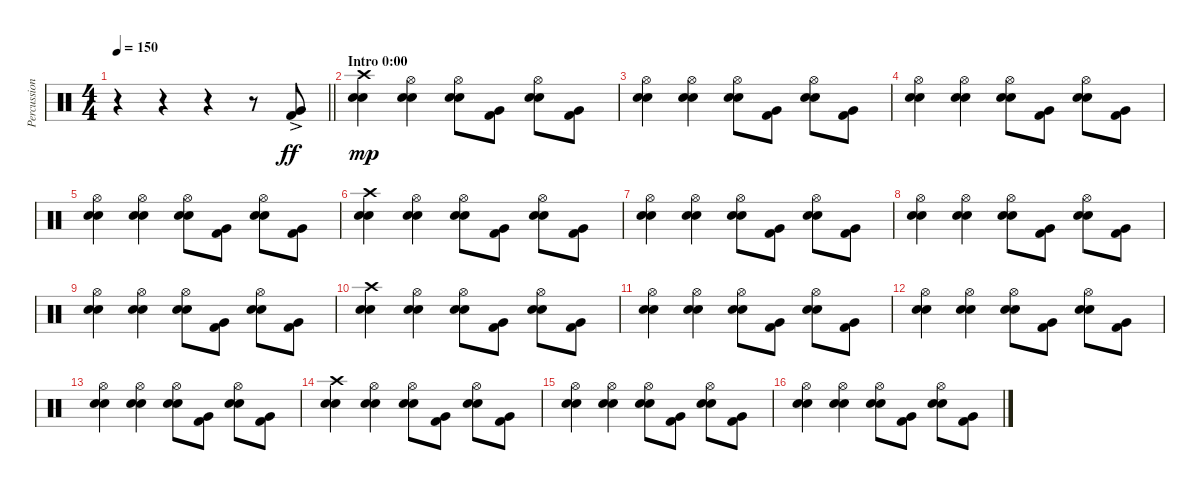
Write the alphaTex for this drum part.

\track ("Percussion" "Percussion") {instrument percussion}
\staff {score}
\articulation defaults
\ts (4 4)
\tempo 150
\clef neutral
\barLineRight lightlight
\ks c
r.4{dy ff} r.4 r.4 r.8 ("Kick (hit) 2" "Very Low Tom (hit)"{ac}).8 |
\section ("" "Intro 0:00")
("Electric Snare (hit)" "Snare (hit) 2" "Crash high (hit)").4{dy mp} ("Electric Snare (hit)" "Snare (hit) 2" "Hi-Hat (open)").4 ("Electric Snare (hit)" "Snare (hit) 2" "Hi-Hat (open)").8 ("Kick (hit) 2" "Very Low Tom (hit)").8 ("Electric Snare (hit)" "Snare (hit) 2" "Hi-Hat (open)").8 ("Kick (hit) 2" "Very Low Tom (hit)").8 |
("Electric Snare (hit)" "Snare (hit) 2" "Hi-Hat (open)").4 ("Electric Snare (hit)" "Snare (hit) 2" "Hi-Hat (open)").4 ("Electric Snare (hit)" "Snare (hit) 2" "Hi-Hat (open)").8 ("Kick (hit) 2" "Very Low Tom (hit)").8 ("Electric Snare (hit)" "Snare (hit) 2" "Hi-Hat (open)").8 ("Kick (hit) 2" "Very Low Tom (hit)").8 |
("Electric Snare (hit)" "Snare (hit) 2" "Hi-Hat (open)").4 ("Electric Snare (hit)" "Snare (hit) 2" "Hi-Hat (open)").4 ("Electric Snare (hit)" "Snare (hit) 2" "Hi-Hat (open)").8 ("Kick (hit) 2" "Very Low Tom (hit)").8 ("Electric Snare (hit)" "Snare (hit) 2" "Hi-Hat (open)").8 ("Kick (hit) 2" "Very Low Tom (hit)").8 |
("Electric Snare (hit)" "Snare (hit) 2" "Hi-Hat (open)").4 ("Electric Snare (hit)" "Snare (hit) 2" "Hi-Hat (open)").4 ("Electric Snare (hit)" "Snare (hit) 2" "Hi-Hat (open)").8 ("Kick (hit) 2" "Very Low Tom (hit)").8 ("Electric Snare (hit)" "Snare (hit) 2" "Hi-Hat (open)").8 ("Kick (hit) 2" "Very Low Tom (hit)").8 |
("Electric Snare (hit)" "Snare (hit) 2" "Crash high (hit)").4 ("Electric Snare (hit)" "Snare (hit) 2" "Hi-Hat (open)").4 ("Electric Snare (hit)" "Snare (hit) 2" "Hi-Hat (open)").8 ("Kick (hit) 2" "Very Low Tom (hit)").8 ("Electric Snare (hit)" "Snare (hit) 2" "Hi-Hat (open)").8 ("Kick (hit) 2" "Very Low Tom (hit)").8 |
("Electric Snare (hit)" "Snare (hit) 2" "Hi-Hat (open)").4 ("Electric Snare (hit)" "Snare (hit) 2" "Hi-Hat (open)").4 ("Electric Snare (hit)" "Snare (hit) 2" "Hi-Hat (open)").8 ("Kick (hit) 2" "Very Low Tom (hit)").8 ("Electric Snare (hit)" "Snare (hit) 2" "Hi-Hat (open)").8 ("Kick (hit) 2" "Very Low Tom (hit)").8 |
("Electric Snare (hit)" "Snare (hit) 2" "Hi-Hat (open)").4 ("Electric Snare (hit)" "Snare (hit) 2" "Hi-Hat (open)").4 ("Electric Snare (hit)" "Snare (hit) 2" "Hi-Hat (open)").8 ("Kick (hit) 2" "Very Low Tom (hit)").8 ("Electric Snare (hit)" "Snare (hit) 2" "Hi-Hat (open)").8 ("Kick (hit) 2" "Very Low Tom (hit)").8 |
("Electric Snare (hit)" "Snare (hit) 2" "Hi-Hat (open)").4 ("Electric Snare (hit)" "Snare (hit) 2" "Hi-Hat (open)").4 ("Electric Snare (hit)" "Snare (hit) 2" "Hi-Hat (open)").8 ("Kick (hit) 2" "Very Low Tom (hit)").8 ("Electric Snare (hit)" "Snare (hit) 2" "Hi-Hat (open)").8 ("Kick (hit) 2" "Very Low Tom (hit)").8 |
("Electric Snare (hit)" "Snare (hit) 2" "Crash high (hit)").4 ("Electric Snare (hit)" "Snare (hit) 2" "Hi-Hat (open)").4 ("Electric Snare (hit)" "Snare (hit) 2" "Hi-Hat (open)").8 ("Kick (hit) 2" "Very Low Tom (hit)").8 ("Electric Snare (hit)" "Snare (hit) 2" "Hi-Hat (open)").8 ("Kick (hit) 2" "Very Low Tom (hit)").8 |
("Electric Snare (hit)" "Snare (hit) 2" "Hi-Hat (open)").4 ("Electric Snare (hit)" "Snare (hit) 2" "Hi-Hat (open)").4 ("Electric Snare (hit)" "Snare (hit) 2" "Hi-Hat (open)").8 ("Kick (hit) 2" "Very Low Tom (hit)").8 ("Electric Snare (hit)" "Snare (hit) 2" "Hi-Hat (open)").8 ("Kick (hit) 2" "Very Low Tom (hit)").8 |
("Electric Snare (hit)" "Snare (hit) 2" "Hi-Hat (open)").4 ("Electric Snare (hit)" "Snare (hit) 2" "Hi-Hat (open)").4 ("Electric Snare (hit)" "Snare (hit) 2" "Hi-Hat (open)").8 ("Kick (hit) 2" "Very Low Tom (hit)").8 ("Electric Snare (hit)" "Snare (hit) 2" "Hi-Hat (open)").8 ("Kick (hit) 2" "Very Low Tom (hit)").8 |
("Electric Snare (hit)" "Snare (hit) 2" "Hi-Hat (open)").4 ("Electric Snare (hit)" "Snare (hit) 2" "Hi-Hat (open)").4 ("Electric Snare (hit)" "Snare (hit) 2" "Hi-Hat (open)").8 ("Kick (hit) 2" "Very Low Tom (hit)").8 ("Electric Snare (hit)" "Snare (hit) 2" "Hi-Hat (open)").8 ("Kick (hit) 2" "Very Low Tom (hit)").8 |
("Electric Snare (hit)" "Snare (hit) 2" "Crash high (hit)").4 ("Electric Snare (hit)" "Snare (hit) 2" "Hi-Hat (open)").4 ("Electric Snare (hit)" "Snare (hit) 2" "Hi-Hat (open)").8 ("Kick (hit) 2" "Very Low Tom (hit)").8 ("Electric Snare (hit)" "Snare (hit) 2" "Hi-Hat (open)").8 ("Kick (hit) 2" "Very Low Tom (hit)").8 |
("Electric Snare (hit)" "Snare (hit) 2" "Hi-Hat (open)").4 ("Electric Snare (hit)" "Snare (hit) 2" "Hi-Hat (open)").4 ("Electric Snare (hit)" "Snare (hit) 2" "Hi-Hat (open)").8 ("Kick (hit) 2" "Very Low Tom (hit)").8 ("Electric Snare (hit)" "Snare (hit) 2" "Hi-Hat (open)").8 ("Kick (hit) 2" "Very Low Tom (hit)").8 |
("Electric Snare (hit)" "Snare (hit) 2" "Hi-Hat (open)").4 ("Electric Snare (hit)" "Snare (hit) 2" "Hi-Hat (open)").4 ("Electric Snare (hit)" "Snare (hit) 2" "Hi-Hat (open)").8 ("Kick (hit) 2" "Very Low Tom (hit)").8 ("Electric Snare (hit)" "Snare (hit) 2" "Hi-Hat (open)").8 ("Kick (hit) 2" "Very Low Tom (hit)").8
